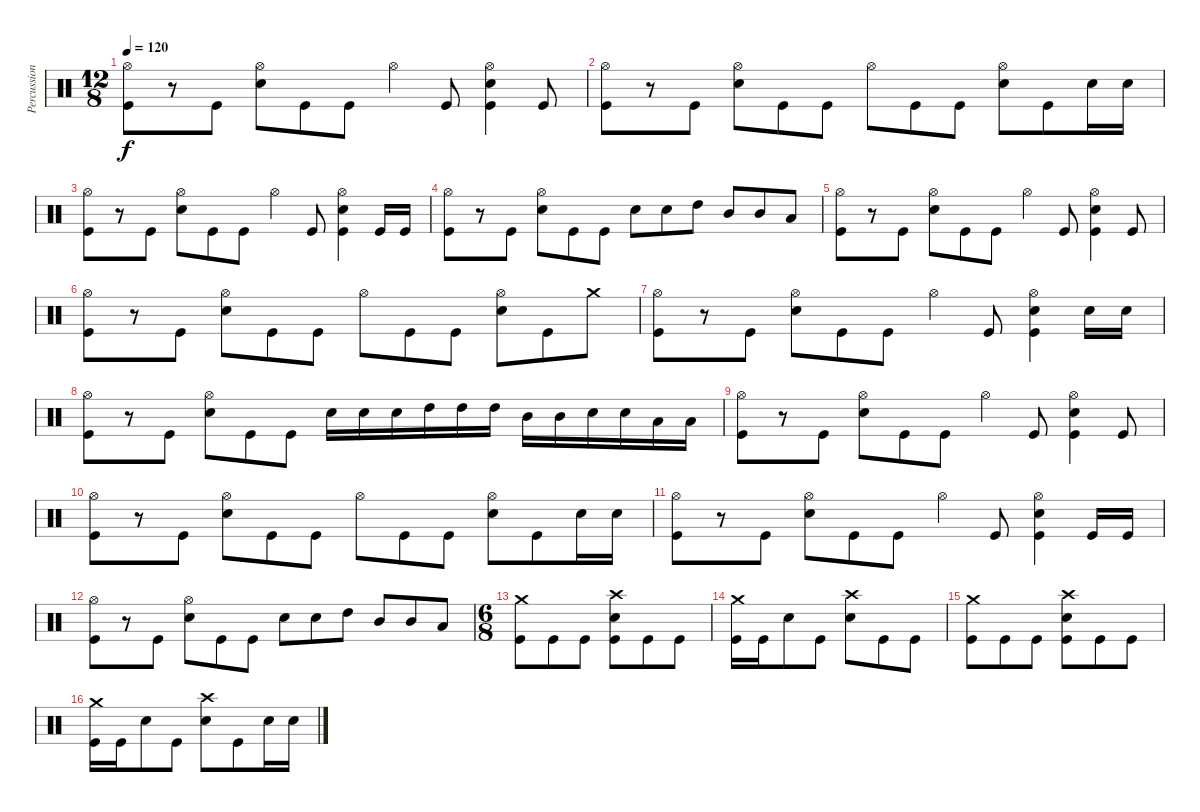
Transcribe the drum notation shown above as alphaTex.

\track ("Percussion" "Percussion") {instrument percussion}
\staff {score}
\articulation defaults
\ts (12 8)
\tempo 120
\clef neutral
\ks c
("Hi-Hat (open)" "Kick (hit)").8{dy f} r.8 "Kick (hit)".8 ("Hi-Hat (open)" "Snare (hit) 2").8 "Kick (hit)".8 "Kick (hit)".8 "Hi-Hat (open)".4 "Kick (hit)".8 ("Hi-Hat (open)" "Snare (hit) 2" "Kick (hit)").4 "Kick (hit)".8 |
("Hi-Hat (open)" "Kick (hit)").8 r.8 "Kick (hit)".8 ("Hi-Hat (open)" "Snare (hit) 2").8 "Kick (hit)".8 "Kick (hit)".8 "Hi-Hat (open)".8 "Kick (hit)".8 "Kick (hit)".8 ("Hi-Hat (open)" "Snare (hit) 2").8 "Kick (hit)".8 "Snare (hit) 2".16 "Snare (hit) 2".16 |
("Hi-Hat (open)" "Kick (hit)").8 r.8 "Kick (hit)".8 ("Hi-Hat (open)" "Snare (hit) 2").8 "Kick (hit)".8 "Kick (hit)".8 "Hi-Hat (open)".4 "Kick (hit)".8 ("Hi-Hat (open)" "Snare (hit) 2" "Kick (hit)").4 "Kick (hit)".16 "Kick (hit)".16 |
("Hi-Hat (open)" "Kick (hit)").8 r.8 "Kick (hit)".8 ("Hi-Hat (open)" "Snare (hit) 2").8 "Kick (hit)".8 "Kick (hit)".8 "Snare (hit) 2".8 "Snare (hit) 2".8 "High Tom (hit)".8 "Mid Tom (hit)".8 "Mid Tom (hit)".8 "Low Tom (hit)".8 |
("Hi-Hat (open)" "Kick (hit)").8 r.8 "Kick (hit)".8 ("Hi-Hat (open)" "Snare (hit) 2").8 "Kick (hit)".8 "Kick (hit)".8 "Hi-Hat (open)".4 "Kick (hit)".8 ("Hi-Hat (open)" "Snare (hit) 2" "Kick (hit)").4 "Kick (hit)".8 |
("Hi-Hat (open)" "Kick (hit)").8 r.8 "Kick (hit)".8 ("Hi-Hat (open)" "Snare (hit) 2").8 "Kick (hit)".8 "Kick (hit)".8 "Hi-Hat (open)".8 "Kick (hit)".8 "Kick (hit)".8 ("Hi-Hat (open)" "Snare (hit) 2").8 "Kick (hit)".8 "Crash medium (hit)".8 |
("Hi-Hat (open)" "Kick (hit)").8 r.8 "Kick (hit)".8 ("Hi-Hat (open)" "Snare (hit) 2").8 "Kick (hit)".8 "Kick (hit)".8 "Hi-Hat (open)".4 "Kick (hit)".8 ("Hi-Hat (open)" "Snare (hit) 2" "Kick (hit)").4 "Snare (hit) 2".16 "Snare (hit) 2".16 |
("Hi-Hat (open)" "Kick (hit)").8 r.8 "Kick (hit)".8 ("Hi-Hat (open)" "Snare (hit) 2").8 "Kick (hit)".8 "Kick (hit)".8 "Snare (hit) 2".16 "Snare (hit) 2".16 "Snare (hit) 2".16 "High Tom (hit)".16 "High Tom (hit)".16 "High Tom (hit)".16 "Mid Tom (hit)".16 "Mid Tom (hit)".16 "Snare (hit) 2".16 "Snare (hit) 2".16 "Low Tom (hit)".16 "Low Tom (hit)".16 |
("Hi-Hat (open)" "Kick (hit)").8 r.8 "Kick (hit)".8 ("Hi-Hat (open)" "Snare (hit) 2").8 "Kick (hit)".8 "Kick (hit)".8 "Hi-Hat (open)".4 "Kick (hit)".8 ("Hi-Hat (open)" "Snare (hit) 2" "Kick (hit)").4 "Kick (hit)".8 |
("Hi-Hat (open)" "Kick (hit)").8 r.8 "Kick (hit)".8 ("Hi-Hat (open)" "Snare (hit) 2").8 "Kick (hit)".8 "Kick (hit)".8 "Hi-Hat (open)".8 "Kick (hit)".8 "Kick (hit)".8 ("Hi-Hat (open)" "Snare (hit) 2").8 "Kick (hit)".8 "Snare (hit) 2".16 "Snare (hit) 2".16 |
("Hi-Hat (open)" "Kick (hit)").8 r.8 "Kick (hit)".8 ("Hi-Hat (open)" "Snare (hit) 2").8 "Kick (hit)".8 "Kick (hit)".8 "Hi-Hat (open)".4 "Kick (hit)".8 ("Hi-Hat (open)" "Snare (hit) 2" "Kick (hit)").4 "Kick (hit)".16 "Kick (hit)".16 |
("Hi-Hat (open)" "Kick (hit)").8 r.8 "Kick (hit)".8 ("Hi-Hat (open)" "Snare (hit) 2").8 "Kick (hit)".8 "Kick (hit)".8 "Snare (hit) 2".8 "Snare (hit) 2".8 "High Tom (hit)".8 "Mid Tom (hit)".8 "Mid Tom (hit)".8 "Low Tom (hit)".8 |
\ts (6 8)
("Crash medium (hit)" "Kick (hit)").8 "Kick (hit)".8 "Kick (hit)".8 ("Crash high (hit)" "Snare (hit) 2" "Kick (hit)").8 "Kick (hit)".8 "Kick (hit)".8 |
("Crash medium (hit)" "Kick (hit)").16 "Kick (hit)".16 "Snare (hit) 2".8 "Kick (hit)".8 ("Crash high (hit)" "Snare (hit) 2").8 "Kick (hit)".8 "Kick (hit)".8 |
("Crash medium (hit)" "Kick (hit)").8 "Kick (hit)".8 "Kick (hit)".8 ("Crash high (hit)" "Snare (hit) 2" "Kick (hit)").8 "Kick (hit)".8 "Kick (hit)".8 |
("Crash medium (hit)" "Kick (hit)").16 "Kick (hit)".16 "Snare (hit) 2".8 "Kick (hit)".8 ("Crash high (hit)" "Snare (hit) 2").8 "Kick (hit)".8 "Snare (hit) 2".16 "Snare (hit) 2".16
